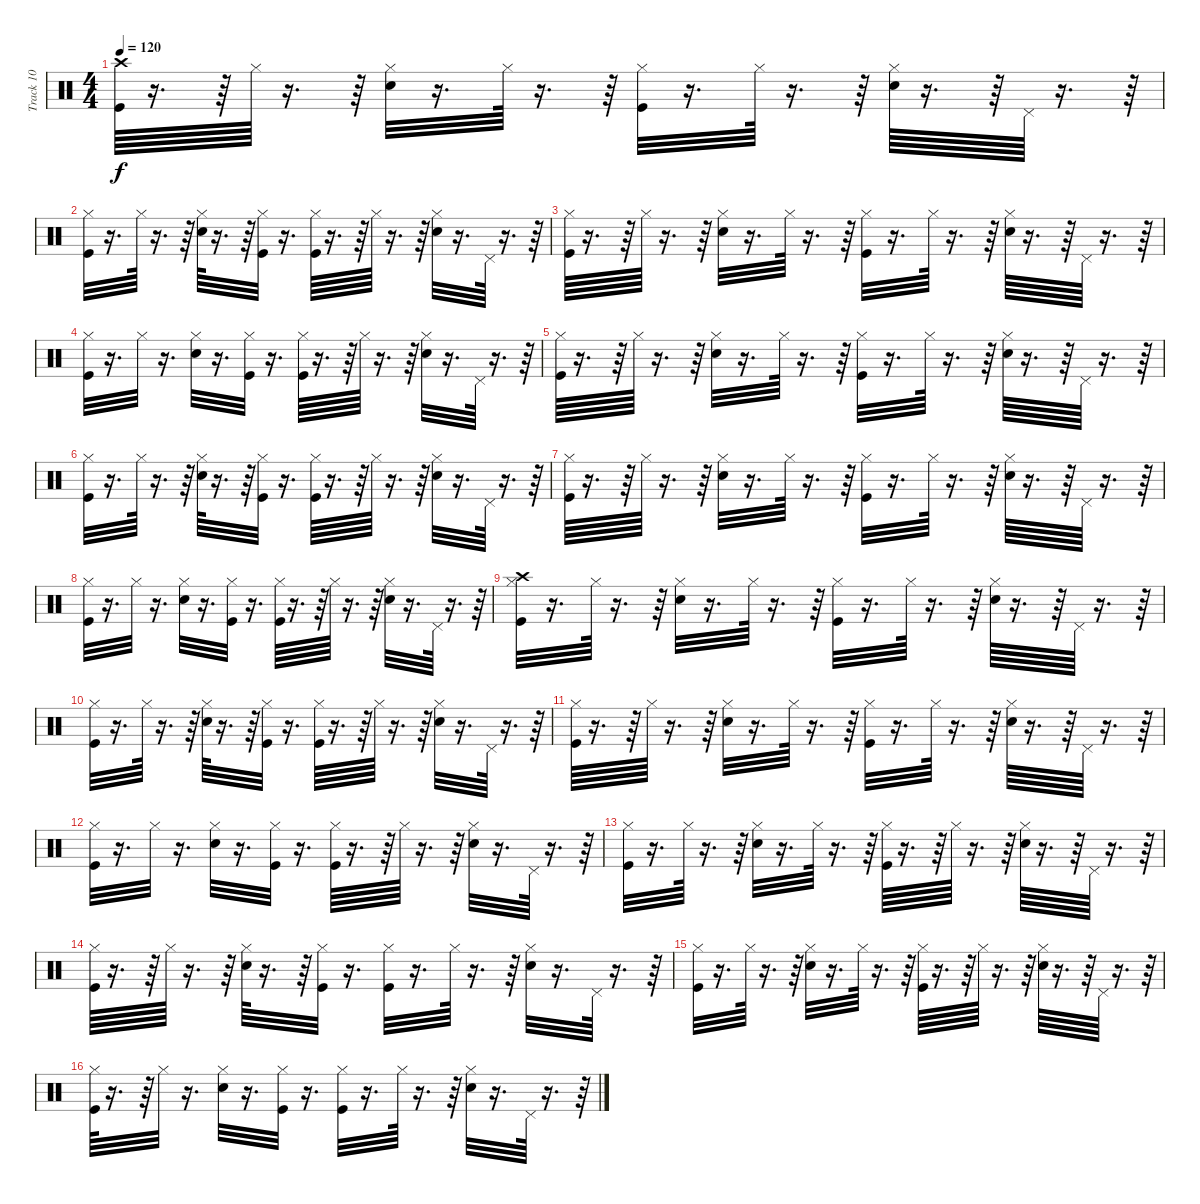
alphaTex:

\track ("Track 10" "Track 10") {instrument percussion}
\staff {score}
\articulation defaults
\ts (4 4)
\tempo 120
\clef neutral
\ks c
("Kick (hit)" "Crash high (hit)").64{dy f} r.16{d} r.64 "Hi-Hat (closed)".64 r.16{d} r.64 ("Snare (hit) 2" "Hi-Hat (closed)").32 r.16{d} "Hi-Hat (closed)".64 r.16{d} r.64 ("Kick (hit)" "Hi-Hat (closed)").32 r.16{d} "Hi-Hat (closed)".64 r.16{d} r.64 ("Snare (hit) 2" "Hi-Hat (closed)").64 r.16{d} r.64 "Pedal Hi-Hat (hit)".64 r.16{d} r.64 |
("Kick (hit)" "Hi-Hat (closed)").32 r.16{d} "Hi-Hat (closed)".64 r.16{d} r.64 ("Snare (hit) 2" "Hi-Hat (closed)").64 r.16{d} r.64 ("Kick (hit)" "Hi-Hat (closed)").32 r.16{d} ("Kick (hit)" "Hi-Hat (closed)").64 r.16{d} r.64 "Hi-Hat (closed)".64 r.16{d} r.64 ("Snare (hit) 2" "Hi-Hat (closed)").32 r.16{d} "Pedal Hi-Hat (hit)".64 r.16{d} r.64 |
("Kick (hit)" "Hi-Hat (closed)").64 r.16{d} r.64 "Hi-Hat (closed)".64 r.16{d} r.64 ("Snare (hit) 2" "Hi-Hat (closed)").32 r.16{d} "Hi-Hat (closed)".64 r.16{d} r.64 ("Kick (hit)" "Hi-Hat (closed)").32 r.16{d} "Hi-Hat (closed)".64 r.16{d} r.64 ("Snare (hit) 2" "Hi-Hat (closed)").64 r.16{d} r.64 "Pedal Hi-Hat (hit)".64 r.16{d} r.64 |
("Kick (hit)" "Hi-Hat (closed)").32 r.16{d} "Hi-Hat (closed)".32 r.16{d} ("Snare (hit) 2" "Hi-Hat (closed)").32 r.16{d} ("Kick (hit)" "Hi-Hat (closed)").32 r.16{d} ("Kick (hit)" "Hi-Hat (closed)").64 r.16{d} r.64 "Hi-Hat (closed)".64 r.16{d} r.64 ("Snare (hit) 2" "Hi-Hat (closed)").32 r.16{d} "Pedal Hi-Hat (hit)".64 r.16{d} r.64 |
("Kick (hit)" "Hi-Hat (closed)").64 r.16{d} r.64 "Hi-Hat (closed)".64 r.16{d} r.64 ("Snare (hit) 2" "Hi-Hat (closed)").32 r.16{d} "Hi-Hat (closed)".64 r.16{d} r.64 ("Kick (hit)" "Hi-Hat (closed)").32 r.16{d} "Hi-Hat (closed)".64 r.16{d} r.64 ("Snare (hit) 2" "Hi-Hat (closed)").64 r.16{d} r.64 "Pedal Hi-Hat (hit)".64 r.16{d} r.64 |
("Kick (hit)" "Hi-Hat (closed)").32 r.16{d} "Hi-Hat (closed)".64 r.16{d} r.64 ("Snare (hit) 2" "Hi-Hat (closed)").64 r.16{d} r.64 ("Kick (hit)" "Hi-Hat (closed)").32 r.16{d} ("Kick (hit)" "Hi-Hat (closed)").64 r.16{d} r.64 "Hi-Hat (closed)".64 r.16{d} r.64 ("Snare (hit) 2" "Hi-Hat (closed)").32 r.16{d} "Pedal Hi-Hat (hit)".64 r.16{d} r.64 |
("Kick (hit)" "Hi-Hat (closed)").64 r.16{d} r.64 "Hi-Hat (closed)".64 r.16{d} r.64 ("Snare (hit) 2" "Hi-Hat (closed)").32 r.16{d} "Hi-Hat (closed)".64 r.16{d} r.64 ("Kick (hit)" "Hi-Hat (closed)").32 r.16{d} "Hi-Hat (closed)".64 r.16{d} r.64 ("Snare (hit) 2" "Hi-Hat (closed)").64 r.16{d} r.64 "Pedal Hi-Hat (hit)".64 r.16{d} r.64 |
("Kick (hit)" "Hi-Hat (closed)").32 r.16{d} "Hi-Hat (closed)".32 r.16{d} ("Snare (hit) 2" "Hi-Hat (closed)").32 r.16{d} ("Kick (hit)" "Hi-Hat (closed)").32 r.16{d} ("Kick (hit)" "Hi-Hat (closed)").64 r.16{d} r.64 "Hi-Hat (closed)".64 r.16{d} r.64 ("Snare (hit) 2" "Hi-Hat (closed)").32 r.16{d} "Pedal Hi-Hat (hit)".64 r.16{d} r.64 |
("Kick (hit)" "Hi-Hat (closed)" "Crash high (hit)").32 r.16{d} "Hi-Hat (closed)".64 r.16{d} r.64 ("Snare (hit) 2" "Hi-Hat (closed)").32 r.16{d} "Hi-Hat (closed)".64 r.16{d} r.64 ("Kick (hit)" "Hi-Hat (closed)").32 r.16{d} "Hi-Hat (closed)".64 r.16{d} r.64 ("Snare (hit) 2" "Hi-Hat (closed)").64 r.16{d} r.64 "Pedal Hi-Hat (hit)".64 r.16{d} r.64 |
("Kick (hit)" "Hi-Hat (closed)").32 r.16{d} "Hi-Hat (closed)".64 r.16{d} r.64 ("Snare (hit) 2" "Hi-Hat (closed)").64 r.16{d} r.64 ("Kick (hit)" "Hi-Hat (closed)").32 r.16{d} ("Kick (hit)" "Hi-Hat (closed)").64 r.16{d} r.64 "Hi-Hat (closed)".64 r.16{d} r.64 ("Snare (hit) 2" "Hi-Hat (closed)").32 r.16{d} "Pedal Hi-Hat (hit)".64 r.16{d} r.64 |
("Kick (hit)" "Hi-Hat (closed)").64 r.16{d} r.64 "Hi-Hat (closed)".64 r.16{d} r.64 ("Snare (hit) 2" "Hi-Hat (closed)").32 r.16{d} "Hi-Hat (closed)".64 r.16{d} r.64 ("Kick (hit)" "Hi-Hat (closed)").32 r.16{d} "Hi-Hat (closed)".64 r.16{d} r.64 ("Snare (hit) 2" "Hi-Hat (closed)").64 r.16{d} r.64 "Pedal Hi-Hat (hit)".64 r.16{d} r.64 |
("Kick (hit)" "Hi-Hat (closed)").32 r.16{d} "Hi-Hat (closed)".32 r.16{d} ("Snare (hit) 2" "Hi-Hat (closed)").32 r.16{d} ("Kick (hit)" "Hi-Hat (closed)").32 r.16{d} ("Kick (hit)" "Hi-Hat (closed)").64 r.16{d} r.64 "Hi-Hat (closed)".64 r.16{d} r.64 ("Snare (hit) 2" "Hi-Hat (closed)").32 r.16{d} "Pedal Hi-Hat (hit)".64 r.16{d} r.64 |
("Kick (hit)" "Hi-Hat (closed)").32 r.16{d} "Hi-Hat (closed)".64 r.16{d} r.64 ("Snare (hit) 2" "Hi-Hat (closed)").32 r.16{d} "Hi-Hat (closed)".64 r.16{d} r.64 ("Kick (hit)" "Hi-Hat (closed)").64 r.16{d} r.64 "Hi-Hat (closed)".64 r.16{d} r.64 ("Snare (hit) 2" "Hi-Hat (closed)").64 r.16{d} r.64 "Pedal Hi-Hat (hit)".64 r.16{d} r.64 |
("Kick (hit)" "Hi-Hat (closed)").64 r.16{d} r.64 "Hi-Hat (closed)".64 r.16{d} r.64 ("Snare (hit) 2" "Hi-Hat (closed)").64 r.16{d} r.64 ("Kick (hit)" "Hi-Hat (closed)").32 r.16{d} ("Kick (hit)" "Hi-Hat (closed)").32 r.16{d} "Hi-Hat (closed)".64 r.16{d} r.64 ("Snare (hit) 2" "Hi-Hat (closed)").32 r.16{d} "Pedal Hi-Hat (hit)".64 r.16{d} r.64 |
("Kick (hit)" "Hi-Hat (closed)").32 r.16{d} "Hi-Hat (closed)".64 r.16{d} r.64 ("Snare (hit) 2" "Hi-Hat (closed)").32 r.16{d} "Hi-Hat (closed)".64 r.16{d} r.64 ("Kick (hit)" "Hi-Hat (closed)").64 r.16{d} r.64 "Hi-Hat (closed)".64 r.16{d} r.64 ("Snare (hit) 2" "Hi-Hat (closed)").64 r.16{d} r.64 "Pedal Hi-Hat (hit)".64 r.16{d} r.64 |
("Kick (hit)" "Hi-Hat (closed)").64 r.16{d} r.64 "Hi-Hat (closed)".32 r.16{d} ("Snare (hit) 2" "Hi-Hat (closed)").32 r.16{d} ("Kick (hit)" "Hi-Hat (closed)").32 r.16{d} ("Kick (hit)" "Hi-Hat (closed)").32 r.16{d} "Hi-Hat (closed)".64 r.16{d} r.64 ("Snare (hit) 2" "Hi-Hat (closed)").32 r.16{d} "Pedal Hi-Hat (hit)".64 r.16{d} r.64
